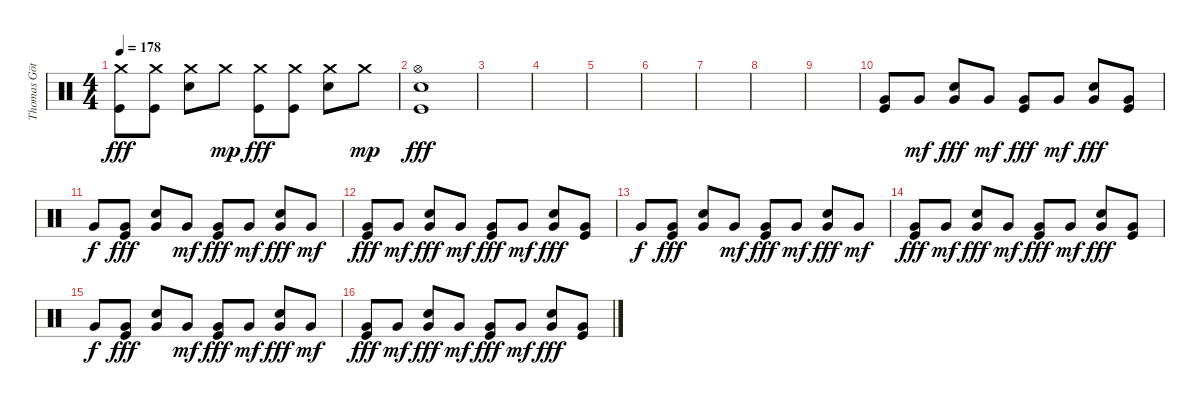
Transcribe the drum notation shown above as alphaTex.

\track ("Thomas Götz" "Thomas Göt") {instrument percussion}
\staff {score}
\articulation defaults
\ts (4 4)
\tempo 178
\clef neutral
\ks c
("Crash medium (hit)" "Kick (hit)").8{dy fff} ("Crash medium (hit)" "Kick (hit)").8 ("Crash medium (hit)" "Electric Snare (hit)").8 "Crash medium (hit)".8{dy mp} ("Crash medium (hit)" "Kick (hit)").8{dy fff} ("Crash medium (hit)" "Kick (hit)").8 ("Crash medium (hit)" "Electric Snare (hit)").8 "Crash medium (hit)".8{dy mp} |
("Hi-Hat (open)" "Electric Snare (hit)" "Kick (hit)").1{dy fff} |
|
|
|
|
|
|
|
("Very Low Tom (hit)" "Kick (hit)").8 "Very Low Tom (hit)".8{dy mf} ("Very Low Tom (hit)" "Electric Snare (hit)").8{dy fff} "Very Low Tom (hit)".8{dy mf} ("Very Low Tom (hit)" "Kick (hit)").8{dy fff} "Very Low Tom (hit)".8{dy mf} ("Very Low Tom (hit)" "Electric Snare (hit)").8{dy fff} ("Very Low Tom (hit)" "Kick (hit)").8 |
"Very Low Tom (hit)".8{dy f} ("Very Low Tom (hit)" "Kick (hit)").8{dy fff} ("Very Low Tom (hit)" "Electric Snare (hit)").8 "Very Low Tom (hit)".8{dy mf} ("Very Low Tom (hit)" "Kick (hit)").8{dy fff} "Very Low Tom (hit)".8{dy mf} ("Very Low Tom (hit)" "Electric Snare (hit)").8{dy fff} "Very Low Tom (hit)".8{dy mf} |
("Very Low Tom (hit)" "Kick (hit)").8{dy fff} "Very Low Tom (hit)".8{dy mf} ("Very Low Tom (hit)" "Electric Snare (hit)").8{dy fff} "Very Low Tom (hit)".8{dy mf} ("Very Low Tom (hit)" "Kick (hit)").8{dy fff} "Very Low Tom (hit)".8{dy mf} ("Very Low Tom (hit)" "Electric Snare (hit)").8{dy fff} ("Very Low Tom (hit)" "Kick (hit)").8 |
"Very Low Tom (hit)".8{dy f} ("Very Low Tom (hit)" "Kick (hit)").8{dy fff} ("Very Low Tom (hit)" "Electric Snare (hit)").8 "Very Low Tom (hit)".8{dy mf} ("Very Low Tom (hit)" "Kick (hit)").8{dy fff} "Very Low Tom (hit)".8{dy mf} ("Very Low Tom (hit)" "Electric Snare (hit)").8{dy fff} "Very Low Tom (hit)".8{dy mf} |
("Very Low Tom (hit)" "Kick (hit)").8{dy fff} "Very Low Tom (hit)".8{dy mf} ("Very Low Tom (hit)" "Electric Snare (hit)").8{dy fff} "Very Low Tom (hit)".8{dy mf} ("Very Low Tom (hit)" "Kick (hit)").8{dy fff} "Very Low Tom (hit)".8{dy mf} ("Very Low Tom (hit)" "Electric Snare (hit)").8{dy fff} ("Very Low Tom (hit)" "Kick (hit)").8 |
"Very Low Tom (hit)".8{dy f} ("Very Low Tom (hit)" "Kick (hit)").8{dy fff} ("Very Low Tom (hit)" "Electric Snare (hit)").8 "Very Low Tom (hit)".8{dy mf} ("Very Low Tom (hit)" "Kick (hit)").8{dy fff} "Very Low Tom (hit)".8{dy mf} ("Very Low Tom (hit)" "Electric Snare (hit)").8{dy fff} "Very Low Tom (hit)".8{dy mf} |
("Very Low Tom (hit)" "Kick (hit)").8{dy fff} "Very Low Tom (hit)".8{dy mf} ("Very Low Tom (hit)" "Electric Snare (hit)").8{dy fff} "Very Low Tom (hit)".8{dy mf} ("Very Low Tom (hit)" "Kick (hit)").8{dy fff} "Very Low Tom (hit)".8{dy mf} ("Very Low Tom (hit)" "Electric Snare (hit)").8{dy fff} ("Very Low Tom (hit)" "Kick (hit)").8
